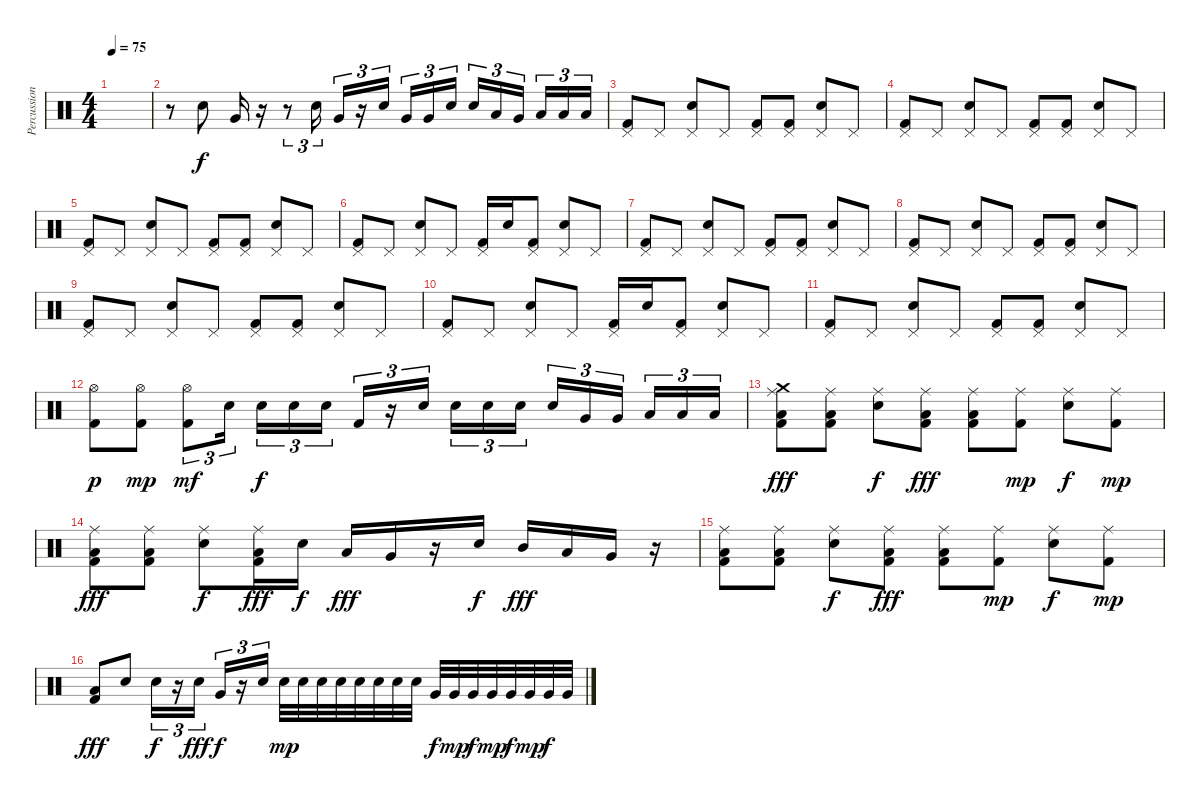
\track ("Percussion" "Percussion") {instrument percussion}
\staff {score}
\articulation defaults
\ts (4 4)
\tempo 75
\clef neutral
\ks c
|
r.8 "Snare (hit) 2".8 "Very Low Tom (hit)".16 r.16 r.8{tu (3 2)} "Snare (hit) 2".16{tu (3 2)} "Very Low Tom (hit)".16{tu (3 2)} r.16{tu (3 2)} "Snare (hit) 2".16{tu (3 2)} "Very Low Tom (hit)".16{tu (3 2)} "Very Low Tom (hit)".16{tu (3 2)} "Snare (hit) 2".16{tu (3 2)} "Snare (hit) 2".16{tu (3 2)} "Low Tom (hit)".16{tu (3 2)} "Very Low Tom (hit)".16{tu (3 2)} "Low Floor Tom (hit)".16{tu (3 2)} "Low Floor Tom (hit)".16{tu (3 2)} "Low Floor Tom (hit)".16{tu (3 2)} |
("Pedal Hi-Hat (hit)" "Kick (hit) 2").8 "Pedal Hi-Hat (hit)".8 ("Pedal Hi-Hat (hit)" "Snare (hit) 2").8 "Pedal Hi-Hat (hit)".8 ("Pedal Hi-Hat (hit)" "Kick (hit) 2").8 ("Pedal Hi-Hat (hit)" "Kick (hit) 2").8 ("Pedal Hi-Hat (hit)" "Snare (hit) 2").8 "Pedal Hi-Hat (hit)".8 |
("Pedal Hi-Hat (hit)" "Kick (hit) 2").8 "Pedal Hi-Hat (hit)".8 ("Pedal Hi-Hat (hit)" "Snare (hit) 2").8 "Pedal Hi-Hat (hit)".8 ("Pedal Hi-Hat (hit)" "Kick (hit) 2").8 ("Pedal Hi-Hat (hit)" "Kick (hit) 2").8 ("Pedal Hi-Hat (hit)" "Snare (hit) 2").8 "Pedal Hi-Hat (hit)".8 |
("Pedal Hi-Hat (hit)" "Kick (hit) 2").8 "Pedal Hi-Hat (hit)".8 ("Pedal Hi-Hat (hit)" "Snare (hit) 2").8 "Pedal Hi-Hat (hit)".8 ("Pedal Hi-Hat (hit)" "Kick (hit) 2").8 ("Pedal Hi-Hat (hit)" "Kick (hit) 2").8 ("Pedal Hi-Hat (hit)" "Snare (hit) 2").8 "Pedal Hi-Hat (hit)".8 |
("Pedal Hi-Hat (hit)" "Kick (hit) 2").8 "Pedal Hi-Hat (hit)".8 ("Pedal Hi-Hat (hit)" "Snare (hit) 2").8 "Pedal Hi-Hat (hit)".8 ("Pedal Hi-Hat (hit)" "Kick (hit) 2").16 "Snare (hit) 2".16 ("Pedal Hi-Hat (hit)" "Kick (hit) 2").8 ("Pedal Hi-Hat (hit)" "Snare (hit) 2").8 "Pedal Hi-Hat (hit)".8 |
("Pedal Hi-Hat (hit)" "Kick (hit) 2").8 "Pedal Hi-Hat (hit)".8 ("Pedal Hi-Hat (hit)" "Snare (hit) 2").8 "Pedal Hi-Hat (hit)".8 ("Pedal Hi-Hat (hit)" "Kick (hit) 2").8 ("Pedal Hi-Hat (hit)" "Kick (hit) 2").8 ("Pedal Hi-Hat (hit)" "Snare (hit) 2").8 "Pedal Hi-Hat (hit)".8 |
("Pedal Hi-Hat (hit)" "Kick (hit) 2").8 "Pedal Hi-Hat (hit)".8 ("Pedal Hi-Hat (hit)" "Snare (hit) 2").8 "Pedal Hi-Hat (hit)".8 ("Pedal Hi-Hat (hit)" "Kick (hit) 2").8 ("Pedal Hi-Hat (hit)" "Kick (hit) 2").8 ("Pedal Hi-Hat (hit)" "Snare (hit) 2").8 "Pedal Hi-Hat (hit)".8 |
("Pedal Hi-Hat (hit)" "Kick (hit) 2").8 "Pedal Hi-Hat (hit)".8 ("Pedal Hi-Hat (hit)" "Snare (hit) 2").8 "Pedal Hi-Hat (hit)".8 ("Pedal Hi-Hat (hit)" "Kick (hit) 2").8 ("Pedal Hi-Hat (hit)" "Kick (hit) 2").8 ("Pedal Hi-Hat (hit)" "Snare (hit) 2").8 "Pedal Hi-Hat (hit)".8 |
("Pedal Hi-Hat (hit)" "Kick (hit) 2").8 "Pedal Hi-Hat (hit)".8 ("Pedal Hi-Hat (hit)" "Snare (hit) 2").8 "Pedal Hi-Hat (hit)".8 ("Pedal Hi-Hat (hit)" "Kick (hit) 2").16 "Snare (hit) 2".16 ("Pedal Hi-Hat (hit)" "Kick (hit) 2").8 ("Pedal Hi-Hat (hit)" "Snare (hit) 2").8 "Pedal Hi-Hat (hit)".8 |
("Pedal Hi-Hat (hit)" "Kick (hit) 2").8 "Pedal Hi-Hat (hit)".8 ("Pedal Hi-Hat (hit)" "Snare (hit) 2").8 "Pedal Hi-Hat (hit)".8 ("Pedal Hi-Hat (hit)" "Kick (hit) 2").8 ("Pedal Hi-Hat (hit)" "Kick (hit) 2").8 ("Pedal Hi-Hat (hit)" "Snare (hit) 2").8 "Pedal Hi-Hat (hit)".8 |
("Hi-Hat (open)" "Kick (hit) 2").8{dy p} ("Hi-Hat (open)" "Kick (hit) 2").8{dy mp} ("Hi-Hat (open)" "Kick (hit) 2").8{tu (3 2) dy mf} "Snare (hit) 2".16{tu (3 2)} "Snare (hit) 2".16{tu (3 2) dy f} "Snare (hit) 2".16{tu (3 2)} "Snare (hit) 2".16{tu (3 2)} "Kick (hit) 2".16{tu (3 2)} r.16{tu (3 2)} "Snare (hit) 2".16{tu (3 2)} "Snare (hit) 2".16{tu (3 2)} "Snare (hit) 2".16{tu (3 2)} "Snare (hit) 2".16{tu (3 2)} "Snare (hit) 2".16{tu (3 2)} "Very Low Tom (hit)".16{tu (3 2)} "Very Low Tom (hit)".16{tu (3 2)} "Low Floor Tom (hit)".16{tu (3 2)} "Low Floor Tom (hit)".16{tu (3 2)} "Low Floor Tom (hit)".16{tu (3 2)} |
("Crash medium (hit)" "Ride (middle)" "Low Floor Tom (hit)" "Kick (hit) 2").8{dy fff} ("Ride (middle)" "Low Floor Tom (hit)" "Kick (hit) 2").8 ("Ride (middle)" "Snare (hit) 2").8{dy f} ("Ride (middle)" "Low Floor Tom (hit)" "Kick (hit) 2").8{dy fff} ("Ride (middle)" "Low Floor Tom (hit)" "Kick (hit) 2").8 ("Ride (middle)" "Kick (hit) 2").8{dy mp} ("Ride (middle)" "Snare (hit) 2").8{dy f} ("Ride (middle)" "Kick (hit) 2").8{dy mp} |
("Ride (middle)" "Low Floor Tom (hit)" "Kick (hit) 2").8{dy fff} ("Ride (middle)" "Low Floor Tom (hit)" "Kick (hit) 2").8 ("Ride (middle)" "Snare (hit) 2").8{dy f} ("Ride (middle)" "Low Floor Tom (hit)" "Kick (hit) 2").16{dy fff} "Snare (hit) 2".16{dy f} "Low Tom (hit)".16{dy fff} "Very Low Tom (hit)".16 r.16 "Snare (hit) 2".16{dy f} "Mid Tom (hit)".16{dy fff} "Low Tom (hit)".16 "Very Low Tom (hit)".16 r.16 |
("Ride (middle)" "Low Floor Tom (hit)" "Kick (hit) 2").8 ("Ride (middle)" "Low Floor Tom (hit)" "Kick (hit) 2").8 ("Ride (middle)" "Snare (hit) 2").8{dy f} ("Ride (middle)" "Low Floor Tom (hit)" "Kick (hit) 2").8{dy fff} ("Ride (middle)" "Low Floor Tom (hit)" "Kick (hit) 2").8 ("Ride (middle)" "Kick (hit) 2").8{dy mp} ("Ride (middle)" "Snare (hit) 2").8{dy f} ("Ride (middle)" "Kick (hit) 2").8{dy mp} |
("Low Floor Tom (hit)" "Kick (hit) 2").8{dy fff} "Snare (hit) 2".8 "Snare (hit) 2".16{tu (3 2) dy f} r.16{tu (3 2)} "Snare (hit) 2".16{tu (3 2) dy fff} "Very Low Tom (hit)".16{tu (3 2) dy f} r.16{tu (3 2)} "Snare (hit) 2".16{tu (3 2)} "Snare (hit) 2".32{dy mp} "Snare (hit) 2".32 "Snare (hit) 2".32 "Snare (hit) 2".32 "Snare (hit) 2".32 "Snare (hit) 2".32 "Snare (hit) 2".32 "Snare (hit) 2".32 "Very Low Tom (hit)".32{dy f} "Very Low Tom (hit)".32{dy mp} "Very Low Tom (hit)".32{dy f} "Very Low Tom (hit)".32{dy mp} "Very Low Tom (hit)".32{dy f} "Very Low Tom (hit)".32{dy mp} "Very Low Tom (hit)".32{dy f} "Very Low Tom (hit)".32
